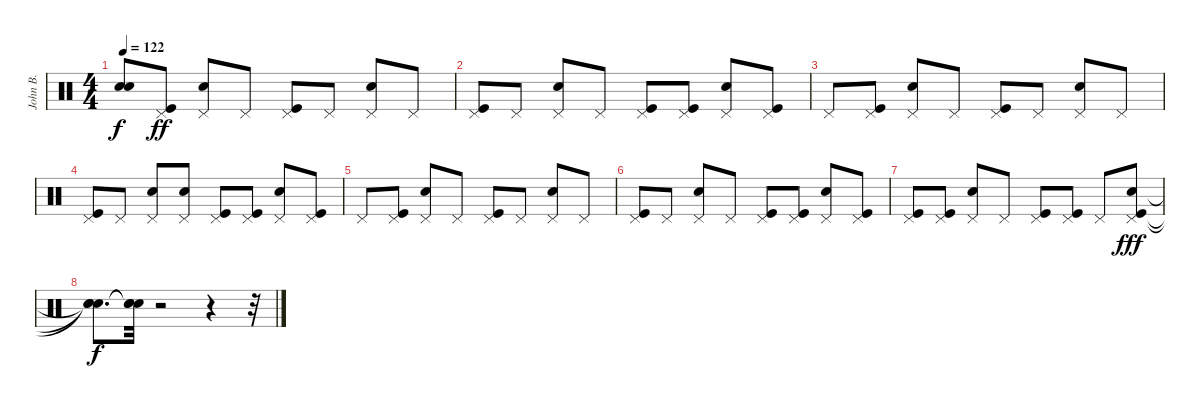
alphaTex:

\track ("John B." "John B.") {instrument percussion}
\staff {score}
\articulation defaults
\ts (4 4)
\tempo 122
\clef neutral
\ks c
("Snare (hit)"{t} "Snare (hit)"{t}).8{dy f} ("Kick (hit)" "Pedal Hi-Hat (hit)").8{dy ff} ("Snare (hit) 2" "Pedal Hi-Hat (hit)").8 "Pedal Hi-Hat (hit)".8 ("Kick (hit)" "Pedal Hi-Hat (hit)").8 "Pedal Hi-Hat (hit)".8 ("Snare (hit) 2" "Pedal Hi-Hat (hit)").8 "Pedal Hi-Hat (hit)".8 |
("Kick (hit)" "Pedal Hi-Hat (hit)").8 "Pedal Hi-Hat (hit)".8 ("Snare (hit) 2" "Pedal Hi-Hat (hit)").8 "Pedal Hi-Hat (hit)".8 ("Kick (hit)" "Pedal Hi-Hat (hit)").8 ("Kick (hit)" "Pedal Hi-Hat (hit)").8 ("Snare (hit) 2" "Pedal Hi-Hat (hit)").8 ("Kick (hit)" "Pedal Hi-Hat (hit)").8 |
"Pedal Hi-Hat (hit)".8 ("Kick (hit)" "Pedal Hi-Hat (hit)").8 ("Snare (hit) 2" "Pedal Hi-Hat (hit)").8 "Pedal Hi-Hat (hit)".8 ("Kick (hit)" "Pedal Hi-Hat (hit)").8 "Pedal Hi-Hat (hit)".8 ("Snare (hit) 2" "Pedal Hi-Hat (hit)").8 "Pedal Hi-Hat (hit)".8 |
("Kick (hit)" "Pedal Hi-Hat (hit)").8 "Pedal Hi-Hat (hit)".8 ("Snare (hit) 2" "Pedal Hi-Hat (hit)").8 ("Snare (hit) 2" "Pedal Hi-Hat (hit)").8 ("Kick (hit)" "Pedal Hi-Hat (hit)").8 ("Kick (hit)" "Pedal Hi-Hat (hit)").8 ("Snare (hit) 2" "Pedal Hi-Hat (hit)").8 ("Kick (hit)" "Pedal Hi-Hat (hit)").8 |
"Pedal Hi-Hat (hit)".8 ("Kick (hit)" "Pedal Hi-Hat (hit)").8 ("Snare (hit) 2" "Pedal Hi-Hat (hit)").8 "Pedal Hi-Hat (hit)".8 ("Kick (hit)" "Pedal Hi-Hat (hit)").8 "Pedal Hi-Hat (hit)".8 ("Snare (hit) 2" "Pedal Hi-Hat (hit)").8 "Pedal Hi-Hat (hit)".8 |
("Kick (hit)" "Pedal Hi-Hat (hit)").8 "Pedal Hi-Hat (hit)".8 ("Snare (hit) 2" "Pedal Hi-Hat (hit)").8 "Pedal Hi-Hat (hit)".8 ("Kick (hit)" "Pedal Hi-Hat (hit)").8 ("Kick (hit)" "Pedal Hi-Hat (hit)").8 ("Snare (hit) 2" "Pedal Hi-Hat (hit)").8 ("Kick (hit)" "Pedal Hi-Hat (hit)").8 |
("Kick (hit)" "Pedal Hi-Hat (hit)").8 ("Kick (hit)" "Pedal Hi-Hat (hit)").8 ("Snare (hit) 2" "Pedal Hi-Hat (hit)").8 "Pedal Hi-Hat (hit)".8 ("Kick (hit)" "Pedal Hi-Hat (hit)").8 ("Kick (hit)" "Pedal Hi-Hat (hit)").8 "Pedal Hi-Hat (hit)".8 ("Kick (hit)" "Snare (hit) 2" "Pedal Hi-Hat (hit)").8{dy fff} |
("Snare (hit)"{t} "Snare (hit)"{t} "Snare (hit)"{t}).8{d dy f} ("Snare (hit)"{t} "Snare (hit)"{t} "Snare (hit)"{t}).32 r.2 r.4 r.32
